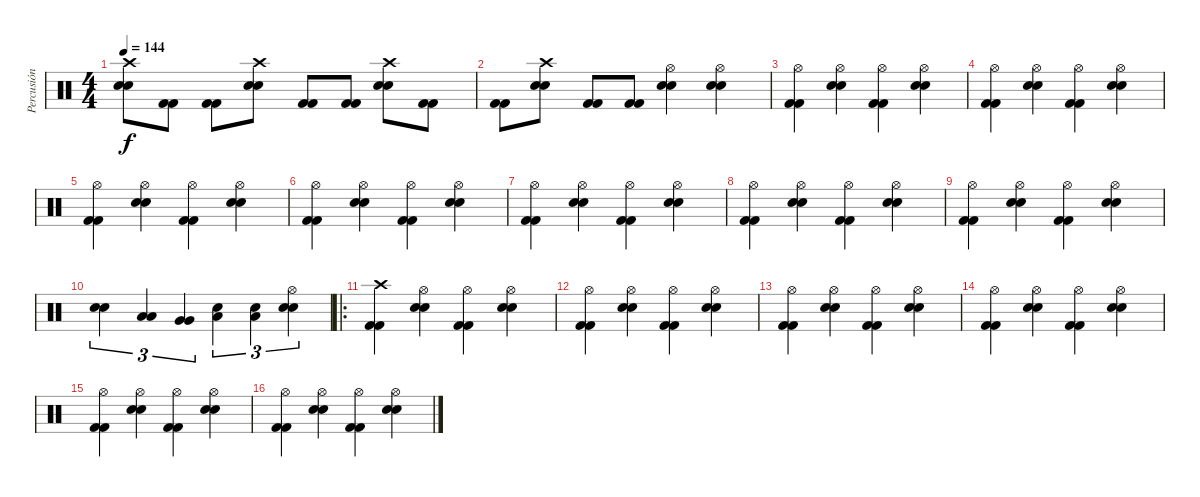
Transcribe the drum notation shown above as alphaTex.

\track ("Percusión" "Percusión") {instrument percussion}
\staff {score}
\articulation defaults
\ts (4 4)
\tempo 144
\clef neutral
\ks c
("Crash high (hit)" "Snare (hit) 2" "Snare (hit) 2").8{dy f} ("Kick (hit) 2" "Kick (hit) 2").8 ("Kick (hit) 2" "Kick (hit) 2").8 ("Crash high (hit)" "Snare (hit) 2" "Snare (hit) 2").8 ("Kick (hit) 2" "Kick (hit) 2").8 ("Kick (hit) 2" "Kick (hit) 2").8 ("Crash high (hit)" "Snare (hit) 2" "Snare (hit) 2").8 ("Kick (hit) 2" "Kick (hit) 2").8 |
("Kick (hit) 2" "Kick (hit) 2").8 ("Crash high (hit)" "Snare (hit) 2" "Snare (hit) 2").8 ("Kick (hit) 2" "Kick (hit) 2").8 ("Kick (hit) 2" "Kick (hit) 2").8 ("Hi-Hat (open)" "Snare (hit) 2" "Snare (hit) 2").4 ("Hi-Hat (open)" "Snare (hit) 2" "Snare (hit) 2").4 |
("Hi-Hat (open)" "Kick (hit) 2" "Kick (hit) 2").4 ("Hi-Hat (open)" "Snare (hit) 2" "Snare (hit) 2").4 ("Hi-Hat (open)" "Kick (hit) 2" "Kick (hit) 2").4 ("Hi-Hat (open)" "Snare (hit) 2" "Snare (hit) 2").4 |
("Hi-Hat (open)" "Kick (hit) 2" "Kick (hit) 2").4 ("Hi-Hat (open)" "Snare (hit) 2" "Snare (hit) 2").4 ("Hi-Hat (open)" "Kick (hit) 2" "Kick (hit) 2").4 ("Hi-Hat (open)" "Snare (hit) 2" "Snare (hit) 2").4 |
("Hi-Hat (open)" "Kick (hit) 2" "Kick (hit) 2").4 ("Hi-Hat (open)" "Snare (hit) 2" "Snare (hit) 2").4 ("Hi-Hat (open)" "Kick (hit) 2" "Kick (hit) 2").4 ("Hi-Hat (open)" "Snare (hit) 2" "Snare (hit) 2").4 |
("Hi-Hat (open)" "Kick (hit) 2" "Kick (hit) 2").4 ("Hi-Hat (open)" "Snare (hit) 2" "Snare (hit) 2").4 ("Hi-Hat (open)" "Kick (hit) 2" "Kick (hit) 2").4 ("Hi-Hat (open)" "Snare (hit) 2" "Snare (hit) 2").4 |
("Hi-Hat (open)" "Kick (hit) 2" "Kick (hit) 2").4 ("Hi-Hat (open)" "Snare (hit) 2" "Snare (hit) 2").4 ("Hi-Hat (open)" "Kick (hit) 2" "Kick (hit) 2").4 ("Hi-Hat (open)" "Snare (hit) 2" "Snare (hit) 2").4 |
("Hi-Hat (open)" "Kick (hit) 2" "Kick (hit) 2").4 ("Hi-Hat (open)" "Snare (hit) 2" "Snare (hit) 2").4 ("Hi-Hat (open)" "Kick (hit) 2" "Kick (hit) 2").4 ("Hi-Hat (open)" "Snare (hit) 2" "Snare (hit) 2").4 |
("Hi-Hat (open)" "Kick (hit) 2" "Kick (hit) 2").4 ("Hi-Hat (open)" "Snare (hit) 2" "Snare (hit) 2").4 ("Hi-Hat (open)" "Kick (hit) 2" "Kick (hit) 2").4 ("Hi-Hat (open)" "Snare (hit) 2" "Snare (hit) 2").4 |
("Snare (hit) 2" "Snare (hit) 2").4{tu (3 2)} ("Low Tom (hit)" "Low Tom (hit)").4{tu (3 2)} ("Very Low Tom (hit)" "Very Low Tom (hit)").4{tu (3 2)} ("Snare (hit) 2" "Low Tom (hit)").4{tu (3 2)} ("Snare (hit) 2" "Low Tom (hit)").4{tu (3 2)} ("Hi-Hat (open)" "Snare (hit) 2" "Snare (hit) 2").4{tu (3 2)} |
\ro
("Crash high (hit)" "Kick (hit) 2" "Kick (hit) 2").4 ("Hi-Hat (open)" "Snare (hit) 2" "Snare (hit) 2").4 ("Hi-Hat (open)" "Kick (hit) 2" "Kick (hit) 2").4 ("Hi-Hat (open)" "Snare (hit) 2" "Snare (hit) 2").4 |
("Hi-Hat (open)" "Kick (hit) 2" "Kick (hit) 2").4 ("Hi-Hat (open)" "Snare (hit) 2" "Snare (hit) 2").4 ("Hi-Hat (open)" "Kick (hit) 2" "Kick (hit) 2").4 ("Hi-Hat (open)" "Snare (hit) 2" "Snare (hit) 2").4 |
("Hi-Hat (open)" "Kick (hit) 2" "Kick (hit) 2").4 ("Hi-Hat (open)" "Snare (hit) 2" "Snare (hit) 2").4 ("Hi-Hat (open)" "Kick (hit) 2" "Kick (hit) 2").4 ("Hi-Hat (open)" "Snare (hit) 2" "Snare (hit) 2").4 |
("Hi-Hat (open)" "Kick (hit) 2" "Kick (hit) 2").4 ("Hi-Hat (open)" "Snare (hit) 2" "Snare (hit) 2").4 ("Hi-Hat (open)" "Kick (hit) 2" "Kick (hit) 2").4 ("Hi-Hat (open)" "Snare (hit) 2" "Snare (hit) 2").4 |
("Hi-Hat (open)" "Kick (hit) 2" "Kick (hit) 2").4 ("Hi-Hat (open)" "Snare (hit) 2" "Snare (hit) 2").4 ("Hi-Hat (open)" "Kick (hit) 2" "Kick (hit) 2").4 ("Hi-Hat (open)" "Snare (hit) 2" "Snare (hit) 2").4 |
("Hi-Hat (open)" "Kick (hit) 2" "Kick (hit) 2").4 ("Hi-Hat (open)" "Snare (hit) 2" "Snare (hit) 2").4 ("Hi-Hat (open)" "Kick (hit) 2" "Kick (hit) 2").4 ("Hi-Hat (open)" "Snare (hit) 2" "Snare (hit) 2").4
